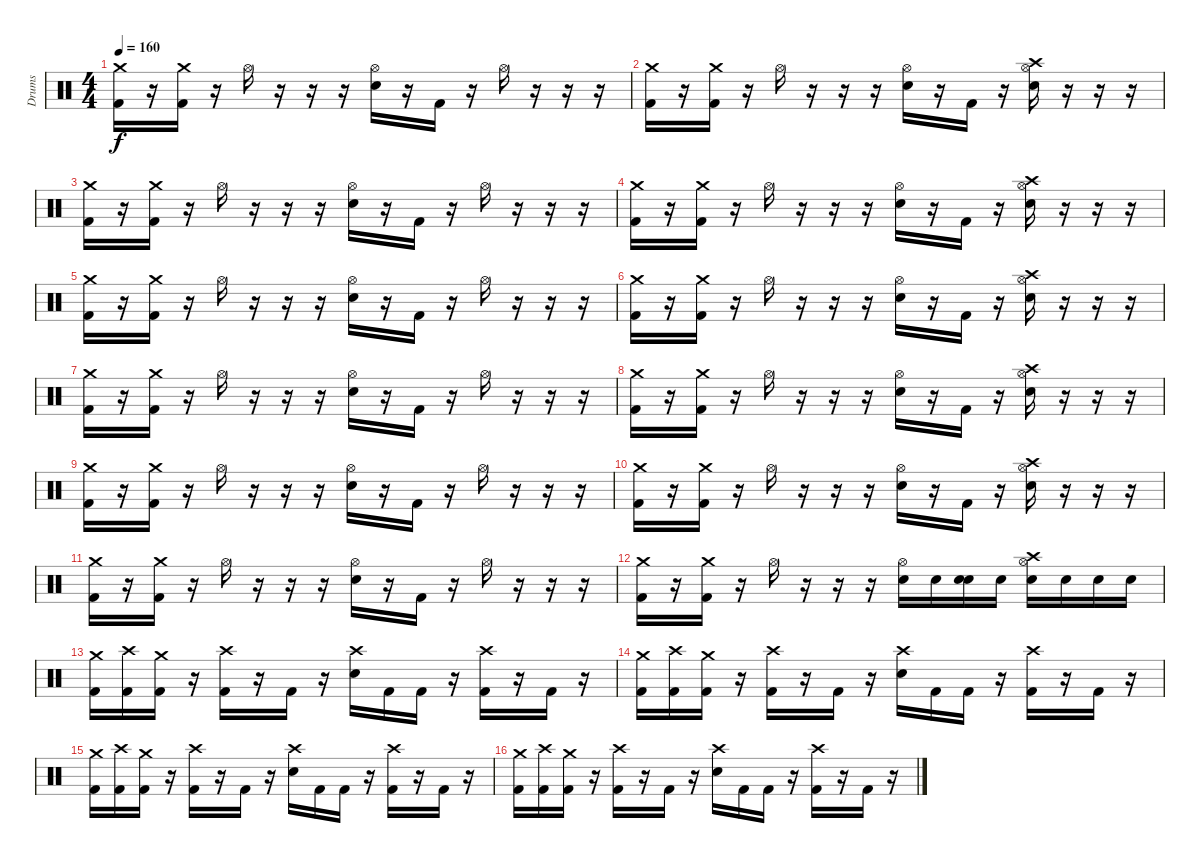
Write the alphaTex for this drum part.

\track ("Drums" "Drums") {instrument percussion}
\staff {score}
\articulation defaults
\ts (4 4)
\tempo 160
\clef neutral
\ks c
("Crash medium (hit)" "Kick (hit) 2").16{dy f} r.16 ("Crash medium (hit)" "Kick (hit) 2").16 r.16 "Hi-Hat (open)".16 r.16 r.16 r.16 ("Hi-Hat (open)" "Electric Snare (hit)").16 r.16 "Kick (hit) 2".16 r.16 "Hi-Hat (open)".16 r.16 r.16 r.16 |
("Crash medium (hit)" "Kick (hit) 2").16 r.16 ("Crash medium (hit)" "Kick (hit) 2").16 r.16 "Hi-Hat (open)".16 r.16 r.16 r.16 ("Hi-Hat (open)" "Electric Snare (hit)").16 r.16 "Kick (hit) 2".16 r.16 ("Crash high (hit)" "Hi-Hat (open)" "Electric Snare (hit)").16 r.16 r.16 r.16 |
("Crash medium (hit)" "Kick (hit) 2").16 r.16 ("Crash medium (hit)" "Kick (hit) 2").16 r.16 "Hi-Hat (open)".16 r.16 r.16 r.16 ("Hi-Hat (open)" "Electric Snare (hit)").16 r.16 "Kick (hit) 2".16 r.16 "Hi-Hat (open)".16 r.16 r.16 r.16 |
("Crash medium (hit)" "Kick (hit) 2").16 r.16 ("Crash medium (hit)" "Kick (hit) 2").16 r.16 "Hi-Hat (open)".16 r.16 r.16 r.16 ("Hi-Hat (open)" "Electric Snare (hit)").16 r.16 "Kick (hit) 2".16 r.16 ("Crash high (hit)" "Hi-Hat (open)" "Electric Snare (hit)").16 r.16 r.16 r.16 |
("Crash medium (hit)" "Kick (hit) 2").16 r.16 ("Crash medium (hit)" "Kick (hit) 2").16 r.16 "Hi-Hat (open)".16 r.16 r.16 r.16 ("Hi-Hat (open)" "Electric Snare (hit)").16 r.16 "Kick (hit) 2".16 r.16 "Hi-Hat (open)".16 r.16 r.16 r.16 |
("Crash medium (hit)" "Kick (hit) 2").16 r.16 ("Crash medium (hit)" "Kick (hit) 2").16 r.16 "Hi-Hat (open)".16 r.16 r.16 r.16 ("Hi-Hat (open)" "Electric Snare (hit)").16 r.16 "Kick (hit) 2".16 r.16 ("Crash high (hit)" "Hi-Hat (open)" "Electric Snare (hit)").16 r.16 r.16 r.16 |
("Crash medium (hit)" "Kick (hit) 2").16 r.16 ("Crash medium (hit)" "Kick (hit) 2").16 r.16 "Hi-Hat (open)".16 r.16 r.16 r.16 ("Hi-Hat (open)" "Electric Snare (hit)").16 r.16 "Kick (hit) 2".16 r.16 "Hi-Hat (open)".16 r.16 r.16 r.16 |
("Crash medium (hit)" "Kick (hit) 2").16 r.16 ("Crash medium (hit)" "Kick (hit) 2").16 r.16 "Hi-Hat (open)".16 r.16 r.16 r.16 ("Hi-Hat (open)" "Electric Snare (hit)").16 r.16 "Kick (hit) 2".16 r.16 ("Crash high (hit)" "Hi-Hat (open)" "Electric Snare (hit)").16 r.16 r.16 r.16 |
("Crash medium (hit)" "Kick (hit) 2").16 r.16 ("Crash medium (hit)" "Kick (hit) 2").16 r.16 "Hi-Hat (open)".16 r.16 r.16 r.16 ("Hi-Hat (open)" "Electric Snare (hit)").16 r.16 "Kick (hit) 2".16 r.16 "Hi-Hat (open)".16 r.16 r.16 r.16 |
("Crash medium (hit)" "Kick (hit) 2").16 r.16 ("Crash medium (hit)" "Kick (hit) 2").16 r.16 "Hi-Hat (open)".16 r.16 r.16 r.16 ("Hi-Hat (open)" "Electric Snare (hit)").16 r.16 "Kick (hit) 2".16 r.16 ("Crash high (hit)" "Hi-Hat (open)" "Electric Snare (hit)").16 r.16 r.16 r.16 |
("Crash medium (hit)" "Kick (hit) 2").16 r.16 ("Crash medium (hit)" "Kick (hit) 2").16 r.16 "Hi-Hat (open)".16 r.16 r.16 r.16 ("Hi-Hat (open)" "Electric Snare (hit)").16 r.16 "Kick (hit) 2".16 r.16 "Hi-Hat (open)".16 r.16 r.16 r.16 |
("Crash medium (hit)" "Kick (hit) 2").16 r.16 ("Crash medium (hit)" "Kick (hit) 2").16 r.16 "Hi-Hat (open)".16 r.16 r.16 r.16 ("Hi-Hat (open)" "Electric Snare (hit)").16 "Electric Snare (hit)".16 ("Electric Snare (hit)" "Snare (hit)").16 "Electric Snare (hit)".16 ("Crash high (hit)" "Hi-Hat (open)" "Electric Snare (hit)").16 "Electric Snare (hit)".16 "Electric Snare (hit)".16 "Electric Snare (hit)".16 |
("Crash medium (hit)" "Kick (hit) 2").16 ("Crash high (hit)" "Kick (hit) 2").16 ("Crash medium (hit)" "Kick (hit) 2").16 r.16 ("Crash high (hit)" "Kick (hit) 2").16 r.16 "Kick (hit) 2".16 r.16 ("Crash high (hit)" "Electric Snare (hit)").16 "Kick (hit) 2".16 "Kick (hit) 2".16 r.16 ("Crash high (hit)" "Kick (hit) 2").16 r.16 "Kick (hit) 2".16 r.16 |
("Crash medium (hit)" "Kick (hit) 2").16 ("Crash high (hit)" "Kick (hit) 2").16 ("Crash medium (hit)" "Kick (hit) 2").16 r.16 ("Crash high (hit)" "Kick (hit) 2").16 r.16 "Kick (hit) 2".16 r.16 ("Crash high (hit)" "Electric Snare (hit)").16 "Kick (hit) 2".16 "Kick (hit) 2".16 r.16 ("Crash high (hit)" "Kick (hit) 2").16 r.16 "Kick (hit) 2".16 r.16 |
("Crash medium (hit)" "Kick (hit) 2").16 ("Crash high (hit)" "Kick (hit) 2").16 ("Crash medium (hit)" "Kick (hit) 2").16 r.16 ("Crash high (hit)" "Kick (hit) 2").16 r.16 "Kick (hit) 2".16 r.16 ("Crash high (hit)" "Electric Snare (hit)").16 "Kick (hit) 2".16 "Kick (hit) 2".16 r.16 ("Crash high (hit)" "Kick (hit) 2").16 r.16 "Kick (hit) 2".16 r.16 |
("Crash medium (hit)" "Kick (hit) 2").16 ("Crash high (hit)" "Kick (hit) 2").16 ("Crash medium (hit)" "Kick (hit) 2").16 r.16 ("Crash high (hit)" "Kick (hit) 2").16 r.16 "Kick (hit) 2".16 r.16 ("Crash high (hit)" "Electric Snare (hit)").16 "Kick (hit) 2".16 "Kick (hit) 2".16 r.16 ("Crash high (hit)" "Kick (hit) 2").16 r.16 "Kick (hit) 2".16 r.16
